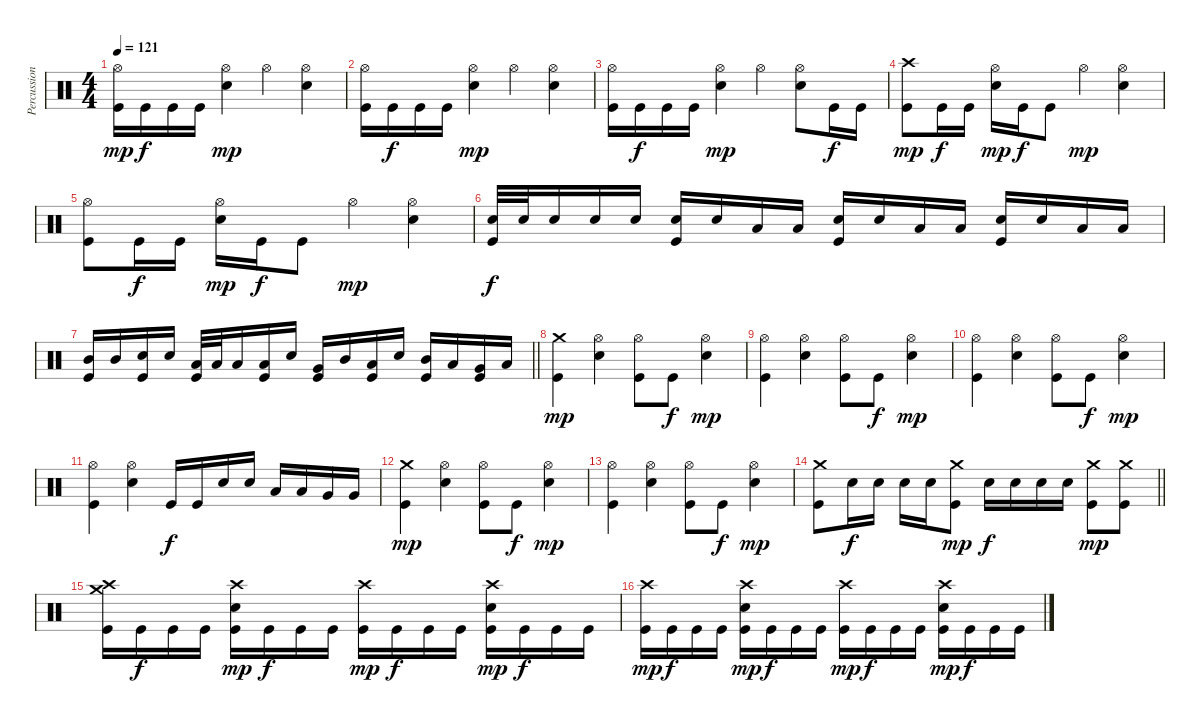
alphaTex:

\track ("Percussion" "Percussion") {instrument percussion}
\staff {score}
\articulation defaults
\ts (4 4)
\tempo 121
\clef neutral
\ks c
("Hi-Hat (open)" "Kick (hit)").16{dy mp} "Kick (hit)".16{dy f} "Kick (hit)".16 "Kick (hit)".16 ("Hi-Hat (open)" "Electric Snare (hit)").4{dy mp} "Hi-Hat (open)".4 ("Hi-Hat (open)" "Electric Snare (hit)").4 |
("Hi-Hat (open)" "Kick (hit)").16 "Kick (hit)".16{dy f} "Kick (hit)".16 "Kick (hit)".16 ("Hi-Hat (open)" "Electric Snare (hit)").4{dy mp} "Hi-Hat (open)".4 ("Hi-Hat (open)" "Electric Snare (hit)").4 |
("Hi-Hat (open)" "Kick (hit)").16 "Kick (hit)".16{dy f} "Kick (hit)".16 "Kick (hit)".16 ("Hi-Hat (open)" "Electric Snare (hit)").4{dy mp} "Hi-Hat (open)".4 ("Hi-Hat (open)" "Electric Snare (hit)").8 "Kick (hit)".16{dy f} "Kick (hit)".16 |
("Crash high (hit)" "Kick (hit)").8{dy mp} "Kick (hit)".16{dy f} "Kick (hit)".16 ("Hi-Hat (open)" "Electric Snare (hit)").16{dy mp} "Kick (hit)".16{dy f} "Kick (hit)".8 "Hi-Hat (open)".4{dy mp} ("Hi-Hat (open)" "Electric Snare (hit)").4 |
("Hi-Hat (open)" "Kick (hit)").8 "Kick (hit)".16{dy f} "Kick (hit)".16 ("Hi-Hat (open)" "Electric Snare (hit)").16{dy mp} "Kick (hit)".16{dy f} "Kick (hit)".8 "Hi-Hat (open)".4{dy mp} ("Hi-Hat (open)" "Electric Snare (hit)").4 |
("Electric Snare (hit)" "Kick (hit)").32{dy f} "Electric Snare (hit)".32 "Electric Snare (hit)".16 "Electric Snare (hit)".16 "Electric Snare (hit)".16 ("Electric Snare (hit)" "Kick (hit)").16 "Electric Snare (hit)".16 "Low Tom (hit)".16 "Low Tom (hit)".16 ("Electric Snare (hit)" "Kick (hit)").16 "Electric Snare (hit)".16 "Low Tom (hit)".16 "Low Tom (hit)".16 ("Electric Snare (hit)" "Kick (hit)").16 "Electric Snare (hit)".16 "Low Floor Tom (hit)".16 "Low Floor Tom (hit)".16 |
\barLineRight lightlight
("Mid Tom (hit)" "Kick (hit)").16 "Mid Tom (hit)".16 ("Electric Snare (hit)" "Kick (hit)").16 "Electric Snare (hit)".16 ("Low Tom (hit)" "Kick (hit)").32 "Low Tom (hit)".32 "Low Tom (hit)".16 ("Low Tom (hit)" "Kick (hit)").16 "Electric Snare (hit)".16 ("Very Low Tom (hit)" "Kick (hit)").16 "Mid Tom (hit)".16 ("Low Tom (hit)" "Kick (hit)").16 "Electric Snare (hit)".16 ("Mid Tom (hit)" "Kick (hit)").16 "Low Tom (hit)".16 ("Very Low Tom (hit)" "Kick (hit)").16 "Low Floor Tom (hit)".16 |
\section ("" "")
("Crash medium (hit)" "Kick (hit)").4{dy mp} ("Hi-Hat (open)" "Electric Snare (hit)").4 ("Hi-Hat (open)" "Kick (hit)").8 "Kick (hit)".8{dy f} ("Hi-Hat (open)" "Electric Snare (hit)").4{dy mp} |
("Hi-Hat (open)" "Kick (hit)").4 ("Hi-Hat (open)" "Electric Snare (hit)").4 ("Hi-Hat (open)" "Kick (hit)").8 "Kick (hit)".8{dy f} ("Hi-Hat (open)" "Electric Snare (hit)").4{dy mp} |
("Hi-Hat (open)" "Kick (hit)").4 ("Hi-Hat (open)" "Electric Snare (hit)").4 ("Hi-Hat (open)" "Kick (hit)").8 "Kick (hit)".8{dy f} ("Hi-Hat (open)" "Electric Snare (hit)").4{dy mp} |
("Hi-Hat (open)" "Kick (hit)").4 ("Hi-Hat (open)" "Electric Snare (hit)").4 "Kick (hit)".16{dy f} "Kick (hit)".16 "Electric Snare (hit)".16 "Electric Snare (hit)".16 "Low Tom (hit)".16 "Low Tom (hit)".16 "Very Low Tom (hit)".16 "Very Low Tom (hit)".16 |
("Crash medium (hit)" "Kick (hit)").4{dy mp} ("Hi-Hat (open)" "Electric Snare (hit)").4 ("Hi-Hat (open)" "Kick (hit)").8 "Kick (hit)".8{dy f} ("Hi-Hat (open)" "Electric Snare (hit)").4{dy mp} |
("Hi-Hat (open)" "Kick (hit)").4 ("Hi-Hat (open)" "Electric Snare (hit)").4 ("Hi-Hat (open)" "Kick (hit)").8 "Kick (hit)".8{dy f} ("Hi-Hat (open)" "Electric Snare (hit)").4{dy mp} |
\barLineRight lightlight
("Crash medium (hit)" "Kick (hit)").8 "Electric Snare (hit)".16{dy f} "Electric Snare (hit)".16 "Electric Snare (hit)".16 "Electric Snare (hit)".16 ("Crash medium (hit)" "Kick (hit)").8{dy mp} "Electric Snare (hit)".16{dy f} "Electric Snare (hit)".16 "Electric Snare (hit)".16 "Electric Snare (hit)".16 ("Crash medium (hit)" "Kick (hit)").8{dy mp} ("Crash medium (hit)" "Kick (hit)").8 |
\section ("" "")
("Crash high (hit)" "Crash medium (hit)" "Kick (hit)").16 "Kick (hit)".16{dy f} "Kick (hit)".16 "Kick (hit)".16 ("Crash high (hit)" "Electric Snare (hit)" "Kick (hit)").16{dy mp} "Kick (hit)".16{dy f} "Kick (hit)".16 "Kick (hit)".16 ("Crash high (hit)" "Kick (hit)").16{dy mp} "Kick (hit)".16{dy f} "Kick (hit)".16 "Kick (hit)".16 ("Crash high (hit)" "Electric Snare (hit)" "Kick (hit)").16{dy mp} "Kick (hit)".16{dy f} "Kick (hit)".16 "Kick (hit)".16 |
("Crash high (hit)" "Kick (hit)").16{dy mp} "Kick (hit)".16{dy f} "Kick (hit)".16 "Kick (hit)".16 ("Crash high (hit)" "Electric Snare (hit)" "Kick (hit)").16{dy mp} "Kick (hit)".16{dy f} "Kick (hit)".16 "Kick (hit)".16 ("Crash high (hit)" "Kick (hit)").16{dy mp} "Kick (hit)".16{dy f} "Kick (hit)".16 "Kick (hit)".16 ("Crash high (hit)" "Electric Snare (hit)" "Kick (hit)").16{dy mp} "Kick (hit)".16{dy f} "Kick (hit)".16 "Kick (hit)".16
